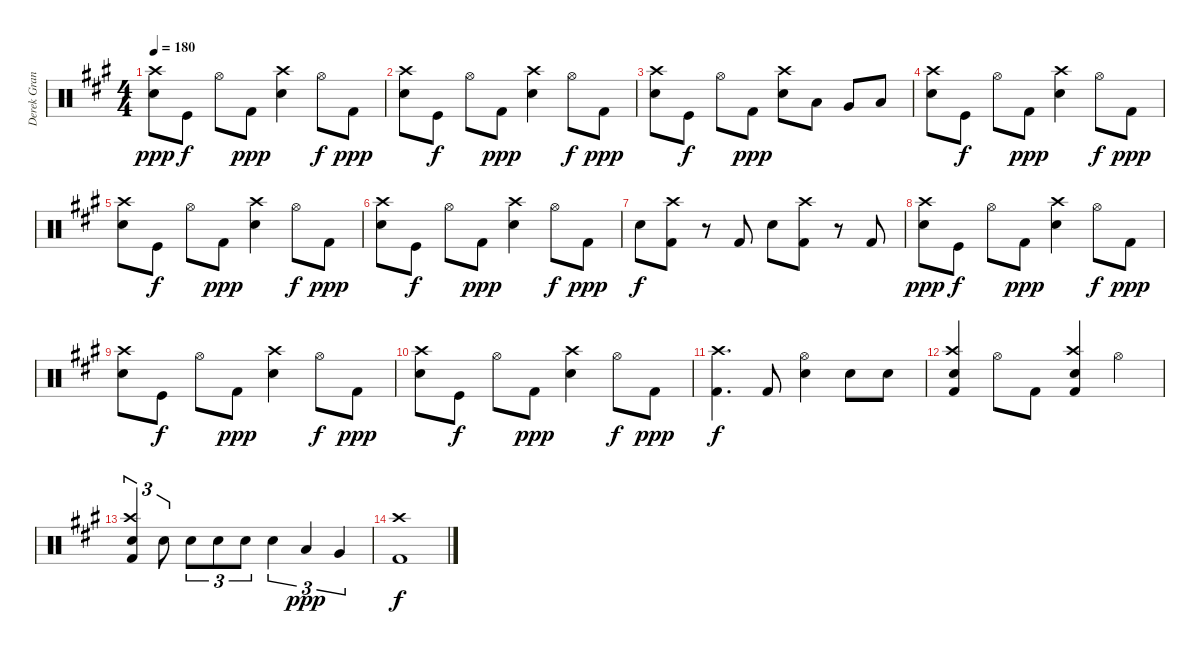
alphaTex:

\track ("Derek Grant - Drums" "Derek Gran") {instrument percussion}
\staff {score}
\articulation defaults
\ts (4 4)
\tempo 180
\clef neutral
\ks a
("Snare (hit) 2" "Crash high (hit)").8{dy ppp} "Kick (hit)".8{dy f} "Hi-Hat (open)".8 "Kick (hit) 2".8{dy ppp} ("Snare (hit) 2" "Crash high (hit)").4 "Hi-Hat (open)".8{dy f} "Kick (hit) 2".8{dy ppp} |
("Snare (hit) 2" "Crash high (hit)").8 "Kick (hit)".8{dy f} "Hi-Hat (open)".8 "Kick (hit) 2".8{dy ppp} ("Snare (hit) 2" "Crash high (hit)").4 "Hi-Hat (open)".8{dy f} "Kick (hit) 2".8{dy ppp} |
("Snare (hit) 2" "Crash high (hit)").8 "Kick (hit)".8{dy f} "Hi-Hat (open)".8 "Kick (hit) 2".8{dy ppp} ("Snare (hit) 2" "Crash high (hit)").8 "Low Tom (hit)".8 "Very Low Tom (hit)".8 "Low Floor Tom (hit)".8 |
("Snare (hit) 2" "Crash high (hit)").8 "Kick (hit)".8{dy f} "Hi-Hat (open)".8 "Kick (hit) 2".8{dy ppp} ("Snare (hit) 2" "Crash high (hit)").4 "Hi-Hat (open)".8{dy f} "Kick (hit) 2".8{dy ppp} |
("Snare (hit) 2" "Crash high (hit)").8 "Kick (hit)".8{dy f} "Hi-Hat (open)".8 "Kick (hit) 2".8{dy ppp} ("Snare (hit) 2" "Crash high (hit)").4 "Hi-Hat (open)".8{dy f} "Kick (hit) 2".8{dy ppp} |
("Snare (hit) 2" "Crash high (hit)").8 "Kick (hit)".8{dy f} "Hi-Hat (open)".8 "Kick (hit) 2".8{dy ppp} ("Snare (hit) 2" "Crash high (hit)").4 "Hi-Hat (open)".8{dy f} "Kick (hit) 2".8{dy ppp} |
"Snare (hit) 2".8{dy f} ("Kick (hit) 2" "Crash high (hit)").8 r.8 "Kick (hit) 2".8 "Snare (hit) 2".8 ("Kick (hit) 2" "Crash high (hit)").8 r.8 "Kick (hit) 2".8 |
("Snare (hit) 2" "Crash high (hit)").8{dy ppp} "Kick (hit)".8{dy f} "Hi-Hat (open)".8 "Kick (hit) 2".8{dy ppp} ("Snare (hit) 2" "Crash high (hit)").4 "Hi-Hat (open)".8{dy f} "Kick (hit) 2".8{dy ppp} |
("Snare (hit) 2" "Crash high (hit)").8 "Kick (hit)".8{dy f} "Hi-Hat (open)".8 "Kick (hit) 2".8{dy ppp} ("Snare (hit) 2" "Crash high (hit)").4 "Hi-Hat (open)".8{dy f} "Kick (hit) 2".8{dy ppp} |
("Snare (hit) 2" "Crash high (hit)").8 "Kick (hit)".8{dy f} "Hi-Hat (open)".8 "Kick (hit) 2".8{dy ppp} ("Snare (hit) 2" "Crash high (hit)").4 "Hi-Hat (open)".8{dy f} "Kick (hit) 2".8{dy ppp} |
("Crash high (hit)" "Kick (hit) 2").4{d dy f} "Kick (hit) 2".8 ("Snare (hit) 2" "Hi-Hat (open)").4 "Snare (hit) 2".8 "Snare (hit) 2".8 |
("Crash high (hit)" "Kick (hit) 2" "Snare (hit) 2").4 "Hi-Hat (open)".8 "Kick (hit) 2".8 ("Crash high (hit)" "Kick (hit) 2" "Snare (hit) 2").4 "Hi-Hat (open)".4 |
("Crash high (hit)" "Kick (hit) 2" "Snare (hit) 2").4{tu (3 2)} "Snare (hit) 2".8{tu (3 2)} "Snare (hit) 2".8{tu (3 2)} "Snare (hit) 2".8{tu (3 2)} "Snare (hit) 2".8{tu (3 2)} "Snare (hit) 2".4{tu (3 2)} "Low Tom (hit)".4{tu (3 2) dy ppp} "Very Low Tom (hit)".4{tu (3 2)} |
("Crash high (hit)" "Kick (hit) 2").1{dy f}
